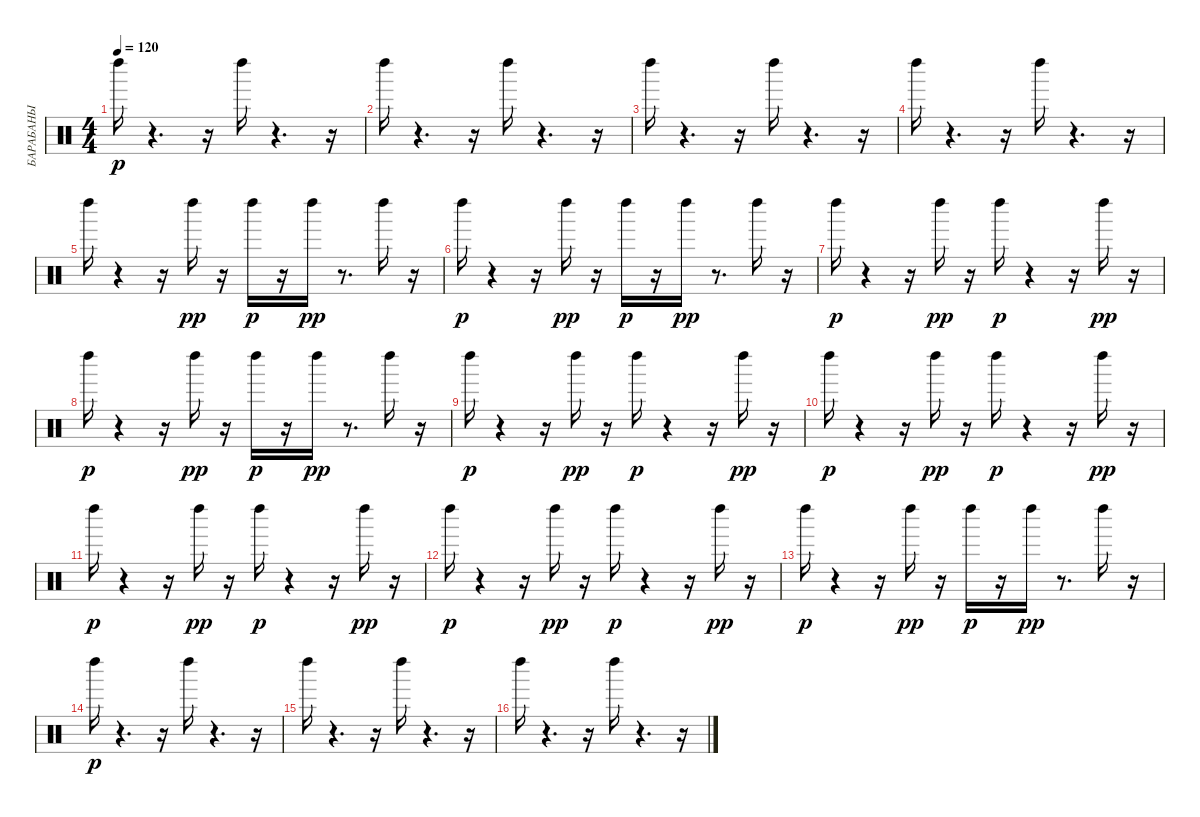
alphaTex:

\track ("БАРАБАНЫ" "БАРАБАНЫ") {instrument percussion}
\staff {score}
\articulation defaults
\ts (4 4)
\tempo 120
\clef neutral
\ks c "Left Maraca (hit)".16{dy p}
r.4{d} r.16 "Left Maraca (hit)".16 r.4{d} r.16 |
"Left Maraca (hit)".16 r.4{d} r.16 "Left Maraca (hit)".16 r.4{d} r.16 |
"Left Maraca (hit)".16 r.4{d} r.16 "Left Maraca (hit)".16 r.4{d} r.16 |
"Left Maraca (hit)".16 r.4{d} r.16 "Left Maraca (hit)".16 r.4{d} r.16 |
"Left Maraca (hit)".16 r.4 r.16 "Left Maraca (hit)".16{dy pp} r.16 "Left Maraca (hit)".16{dy p} r.16 "Left Maraca (hit)".16{dy pp} r.8{d} "Left Maraca (hit)".16 r.16 |
"Left Maraca (hit)".16{dy p} r.4 r.16 "Left Maraca (hit)".16{dy pp} r.16 "Left Maraca (hit)".16{dy p} r.16 "Left Maraca (hit)".16{dy pp} r.8{d} "Left Maraca (hit)".16 r.16 |
"Left Maraca (hit)".16{dy p} r.4 r.16 "Left Maraca (hit)".16{dy pp} r.16 "Left Maraca (hit)".16{dy p} r.4 r.16 "Left Maraca (hit)".16{dy pp} r.16 |
"Left Maraca (hit)".16{dy p} r.4 r.16 "Left Maraca (hit)".16{dy pp} r.16 "Left Maraca (hit)".16{dy p} r.16 "Left Maraca (hit)".16{dy pp} r.8{d} "Left Maraca (hit)".16 r.16 |
"Left Maraca (hit)".16{dy p} r.4 r.16 "Left Maraca (hit)".16{dy pp} r.16 "Left Maraca (hit)".16{dy p} r.4 r.16 "Left Maraca (hit)".16{dy pp} r.16 |
"Left Maraca (hit)".16{dy p} r.4 r.16 "Left Maraca (hit)".16{dy pp} r.16 "Left Maraca (hit)".16{dy p} r.4 r.16 "Left Maraca (hit)".16{dy pp} r.16 |
"Left Maraca (hit)".16{dy p} r.4 r.16 "Left Maraca (hit)".16{dy pp} r.16 "Left Maraca (hit)".16{dy p} r.4 r.16 "Left Maraca (hit)".16{dy pp} r.16 |
"Left Maraca (hit)".16{dy p} r.4 r.16 "Left Maraca (hit)".16{dy pp} r.16 "Left Maraca (hit)".16{dy p} r.4 r.16 "Left Maraca (hit)".16{dy pp} r.16 |
"Left Maraca (hit)".16{dy p} r.4 r.16 "Left Maraca (hit)".16{dy pp} r.16 "Left Maraca (hit)".16{dy p} r.16 "Left Maraca (hit)".16{dy pp} r.8{d} "Left Maraca (hit)".16 r.16 |
"Left Maraca (hit)".16{dy p} r.4{d} r.16 "Left Maraca (hit)".16 r.4{d} r.16 |
"Left Maraca (hit)".16 r.4{d} r.16 "Left Maraca (hit)".16 r.4{d} r.16 |
"Left Maraca (hit)".16 r.4{d} r.16 "Left Maraca (hit)".16 r.4{d} r.16
